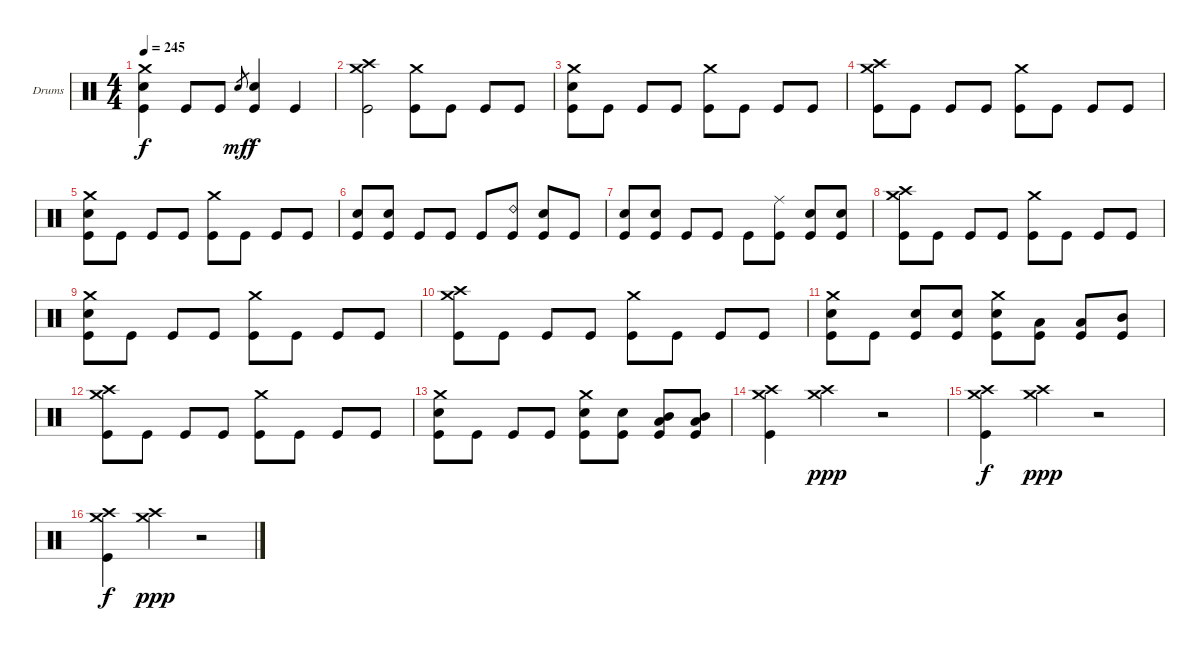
\bracketExtendMode groupsimilarinstruments
\firstSystemTrackNameOrientation horizontal
\otherSystemsTrackNameOrientation horizontal
\track ("Drumkit" "Drums") {instrument percussion}
\staff {score}
\articulation defaults
\ts (4 4)
\tempo 245
\clef neutral
\ks c
("Crash medium (hit)" "Snare (hit) 2" "Kick (hit)").4{dy f} "Kick (hit)".8 "Kick (hit)".8 "Snare (hit) 2".8{gr dy mf} ("Snare (hit) 2" "Kick (hit)").4{dy f} "Kick (hit)".4 |
("Crash high (hit)" "Crash medium (hit)" "Kick (hit)").2 ("Crash medium (hit)" "Kick (hit)").8 "Kick (hit)".8 "Kick (hit)".8 "Kick (hit)".8 |
("Crash medium (hit)" "Snare (hit) 2" "Kick (hit)").8 "Kick (hit)".8 "Kick (hit)".8 "Kick (hit)".8 ("Crash medium (hit)" "Kick (hit)").8 "Kick (hit)".8 "Kick (hit)".8 "Kick (hit)".8 |
("Crash high (hit)" "Crash medium (hit)" "Kick (hit)").8 "Kick (hit)".8 "Kick (hit)".8 "Kick (hit)".8 ("Crash medium (hit)" "Kick (hit)").8 "Kick (hit)".8 "Kick (hit)".8 "Kick (hit)".8 |
("Crash medium (hit)" "Snare (hit) 2" "Kick (hit)").8 "Kick (hit)".8 "Kick (hit)".8 "Kick (hit)".8 ("Crash medium (hit)" "Kick (hit)").8 "Kick (hit)".8 "Kick (hit)".8 "Kick (hit)".8 |
("Snare (hit) 2" "Kick (hit)").8 ("Snare (hit) 2" "Kick (hit)").8 "Kick (hit)".8 "Kick (hit)".8 "Kick (hit)".8 ("Ride (bell) 2" "Kick (hit)").8 ("Snare (hit) 2" "Kick (hit)").8 "Kick (hit)".8 |
("Snare (hit) 2" "Kick (hit)").8 ("Snare (hit) 2" "Kick (hit)").8 "Kick (hit)".8 "Kick (hit)".8 "Kick (hit)".8 ("Ride (middle)" "Kick (hit)").8 ("Snare (hit) 2" "Kick (hit)").8 ("Snare (hit) 2" "Kick (hit)").8 |
("Crash high (hit)" "Crash medium (hit)" "Kick (hit)").8 "Kick (hit)".8 "Kick (hit)".8 "Kick (hit)".8 ("Crash medium (hit)" "Kick (hit)").8 "Kick (hit)".8 "Kick (hit)".8 "Kick (hit)".8 |
("Crash medium (hit)" "Snare (hit) 2" "Kick (hit)").8 "Kick (hit)".8 "Kick (hit)".8 "Kick (hit)".8 ("Crash medium (hit)" "Kick (hit)").8 "Kick (hit)".8 "Kick (hit)".8 "Kick (hit)".8 |
("Crash high (hit)" "Crash medium (hit)" "Kick (hit)").8 "Kick (hit)".8 "Kick (hit)".8 "Kick (hit)".8 ("Crash medium (hit)" "Kick (hit)").8 "Kick (hit)".8 "Kick (hit)".8 "Kick (hit)".8 |
("Crash medium (hit)" "Snare (hit) 2" "Kick (hit)").8 "Kick (hit)".8 ("Snare (hit) 2" "Kick (hit)").8 ("Snare (hit) 2" "Kick (hit)").8 ("Crash medium (hit)" "Snare (hit) 2" "Kick (hit)").8 ("Low Tom (hit)" "Kick (hit)").8 ("Low Tom (hit)" "Kick (hit)").8 ("Mid Tom (hit)" "Kick (hit)").8 |
("Crash high (hit)" "Crash medium (hit)" "Kick (hit)").8 "Kick (hit)".8 "Kick (hit)".8 "Kick (hit)".8 ("Crash medium (hit)" "Kick (hit)").8 "Kick (hit)".8 "Kick (hit)".8 "Kick (hit)".8 |
("Crash medium (hit)" "Snare (hit) 2" "Kick (hit)").8 "Kick (hit)".8 "Kick (hit)".8 "Kick (hit)".8 ("Crash medium (hit)" "Snare (hit) 2" "Kick (hit)").8 ("Snare (hit) 2" "Kick (hit)").8 ("Low Tom (hit)" "Mid Tom (hit)" "Kick (hit)").8 ("Low Tom (hit)" "Mid Tom (hit)" "Kick (hit)").8 |
("Crash high (hit)" "Crash medium (hit)" "Kick (hit)").4 ("Crash high (hit)" "Crash medium (hit)").4{dy ppp} r.2 |
("Crash high (hit)" "Crash medium (hit)" "Kick (hit)").4{dy f} ("Crash high (hit)" "Crash medium (hit)").4{dy ppp} r.2 |
("Crash high (hit)" "Crash medium (hit)" "Kick (hit)").4{dy f} ("Crash high (hit)" "Crash medium (hit)").4{dy ppp} r.2
